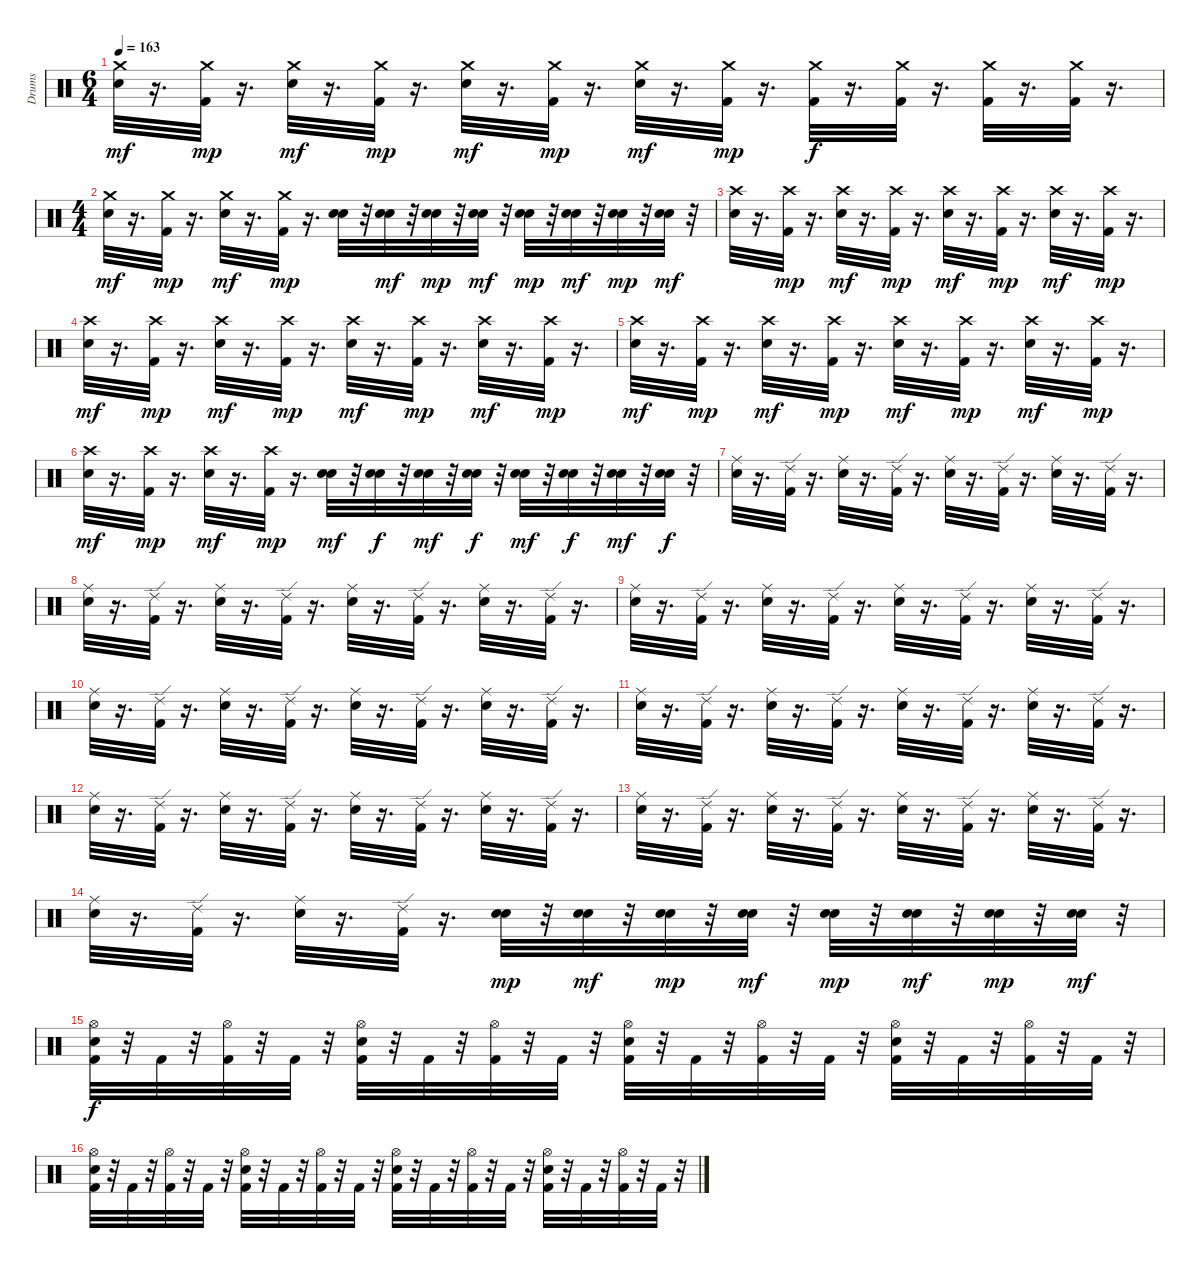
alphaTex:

\track ("Drums" "Drums") {instrument percussion}
\staff {score}
\articulation defaults
\ts (6 4)
\tempo 163
\clef neutral
\ks c
("Snare (hit) 2" "Crash medium (hit)").32{dy mf} r.16{d} ("Kick (hit) 2" "Crash medium (hit)").32{dy mp} r.16{d} ("Snare (hit) 2" "Crash medium (hit)").32{dy mf} r.16{d} ("Kick (hit) 2" "Crash medium (hit)").32{dy mp} r.16{d} ("Snare (hit) 2" "Crash medium (hit)").32{dy mf} r.16{d} ("Kick (hit) 2" "Crash medium (hit)").32{dy mp} r.16{d} ("Snare (hit) 2" "Crash medium (hit)").32{dy mf} r.16{d} ("Kick (hit) 2" "Crash medium (hit)").32{dy mp} r.16{d} ("Kick (hit) 2" "Crash medium (hit)").32{dy f} r.16{d} ("Kick (hit) 2" "Crash medium (hit)").32 r.16{d} ("Kick (hit) 2" "Crash medium (hit)").32 r.16{d} ("Kick (hit) 2" "Crash medium (hit)").32 r.16{d} |
\ts (4 4)
("Snare (hit) 2" "Crash medium (hit)").32{dy mf} r.16{d} ("Kick (hit) 2" "Crash medium (hit)").32{dy mp} r.16{d} ("Snare (hit) 2" "Crash medium (hit)").32{dy mf} r.16{d} ("Kick (hit) 2" "Crash medium (hit)").32{dy mp} r.16{d} ("Snare (hit) 2" "Electric Snare (hit)").32 r.32 ("Snare (hit) 2" "Electric Snare (hit)").32{dy mf} r.32 ("Snare (hit) 2" "Electric Snare (hit)").32{dy mp} r.32 ("Snare (hit) 2" "Electric Snare (hit)").32{dy mf} r.32 ("Snare (hit) 2" "Electric Snare (hit)").32{dy mp} r.32 ("Snare (hit) 2" "Electric Snare (hit)").32{dy mf} r.32 ("Snare (hit) 2" "Electric Snare (hit)").32{dy mp} r.32 ("Snare (hit) 2" "Electric Snare (hit)").32{dy mf} r.32 |
("Snare (hit) 2" "Crash high (hit)").32 r.16{d} ("Kick (hit) 2" "Crash high (hit)").32{dy mp} r.16{d} ("Snare (hit) 2" "Crash high (hit)").32{dy mf} r.16{d} ("Kick (hit) 2" "Crash high (hit)").32{dy mp} r.16{d} ("Snare (hit) 2" "Crash high (hit)").32{dy mf} r.16{d} ("Kick (hit) 2" "Crash high (hit)").32{dy mp} r.16{d} ("Snare (hit) 2" "Crash high (hit)").32{dy mf} r.16{d} ("Kick (hit) 2" "Crash high (hit)").32{dy mp} r.16{d} |
("Snare (hit) 2" "Crash high (hit)").32{dy mf} r.16{d} ("Kick (hit) 2" "Crash high (hit)").32{dy mp} r.16{d} ("Snare (hit) 2" "Crash high (hit)").32{dy mf} r.16{d} ("Kick (hit) 2" "Crash high (hit)").32{dy mp} r.16{d} ("Snare (hit) 2" "Crash high (hit)").32{dy mf} r.16{d} ("Kick (hit) 2" "Crash high (hit)").32{dy mp} r.16{d} ("Snare (hit) 2" "Crash high (hit)").32{dy mf} r.16{d} ("Kick (hit) 2" "Crash high (hit)").32{dy mp} r.16{d} |
("Snare (hit) 2" "Crash high (hit)").32{dy mf} r.16{d} ("Kick (hit) 2" "Crash high (hit)").32{dy mp} r.16{d} ("Snare (hit) 2" "Crash high (hit)").32{dy mf} r.16{d} ("Kick (hit) 2" "Crash high (hit)").32{dy mp} r.16{d} ("Snare (hit) 2" "Crash high (hit)").32{dy mf} r.16{d} ("Kick (hit) 2" "Crash high (hit)").32{dy mp} r.16{d} ("Snare (hit) 2" "Crash high (hit)").32{dy mf} r.16{d} ("Kick (hit) 2" "Crash high (hit)").32{dy mp} r.16{d} |
("Snare (hit) 2" "Crash high (hit)").32{dy mf} r.16{d} ("Kick (hit) 2" "Crash high (hit)").32{dy mp} r.16{d} ("Snare (hit) 2" "Crash high (hit)").32{dy mf} r.16{d} ("Kick (hit) 2" "Crash high (hit)").32{dy mp} r.16{d} ("Snare (hit) 2" "Electric Snare (hit)").32{dy mf} r.32 ("Snare (hit) 2" "Electric Snare (hit)").32{dy f} r.32 ("Snare (hit) 2" "Electric Snare (hit)").32{dy mf} r.32 ("Snare (hit) 2" "Electric Snare (hit)").32{dy f} r.32 ("Snare (hit) 2" "Electric Snare (hit)").32{dy mf} r.32 ("Snare (hit) 2" "Electric Snare (hit)").32{dy f} r.32 ("Snare (hit) 2" "Electric Snare (hit)").32{dy mf} r.32 ("Snare (hit) 2" "Electric Snare (hit)").32{dy f} r.32 |
("Snare (hit) 2" "Ride (middle)").32 r.16{d} ("Kick (hit) 2" "Ride (edge) 2").32 r.16{d} ("Snare (hit) 2" "Ride (middle)").32 r.16{d} ("Kick (hit) 2" "Ride (edge) 2").32 r.16{d} ("Snare (hit) 2" "Ride (middle)").32 r.16{d} ("Kick (hit) 2" "Ride (edge) 2").32 r.16{d} ("Snare (hit) 2" "Ride (middle)").32 r.16{d} ("Kick (hit) 2" "Ride (edge) 2").32 r.16{d} |
("Snare (hit) 2" "Ride (middle)").32 r.16{d} ("Kick (hit) 2" "Ride (edge) 2").32 r.16{d} ("Snare (hit) 2" "Ride (middle)").32 r.16{d} ("Kick (hit) 2" "Ride (edge) 2").32 r.16{d} ("Snare (hit) 2" "Ride (middle)").32 r.16{d} ("Kick (hit) 2" "Ride (edge) 2").32 r.16{d} ("Snare (hit) 2" "Ride (middle)").32 r.16{d} ("Kick (hit) 2" "Ride (edge) 2").32 r.16{d} |
("Snare (hit) 2" "Ride (middle)").32 r.16{d} ("Kick (hit) 2" "Ride (edge) 2").32 r.16{d} ("Snare (hit) 2" "Ride (middle)").32 r.16{d} ("Kick (hit) 2" "Ride (edge) 2").32 r.16{d} ("Snare (hit) 2" "Ride (middle)").32 r.16{d} ("Kick (hit) 2" "Ride (edge) 2").32 r.16{d} ("Snare (hit) 2" "Ride (middle)").32 r.16{d} ("Kick (hit) 2" "Ride (edge) 2").32 r.16{d} |
("Snare (hit) 2" "Ride (middle)").32 r.16{d} ("Kick (hit) 2" "Ride (edge) 2").32 r.16{d} ("Snare (hit) 2" "Ride (middle)").32 r.16{d} ("Kick (hit) 2" "Ride (edge) 2").32 r.16{d} ("Snare (hit) 2" "Ride (middle)").32 r.16{d} ("Kick (hit) 2" "Ride (edge) 2").32 r.16{d} ("Snare (hit) 2" "Ride (middle)").32 r.16{d} ("Kick (hit) 2" "Ride (edge) 2").32 r.16{d} |
("Snare (hit) 2" "Ride (middle)").32 r.16{d} ("Kick (hit) 2" "Ride (edge) 2").32 r.16{d} ("Snare (hit) 2" "Ride (middle)").32 r.16{d} ("Kick (hit) 2" "Ride (edge) 2").32 r.16{d} ("Snare (hit) 2" "Ride (middle)").32 r.16{d} ("Kick (hit) 2" "Ride (edge) 2").32 r.16{d} ("Snare (hit) 2" "Ride (middle)").32 r.16{d} ("Kick (hit) 2" "Ride (edge) 2").32 r.16{d} |
("Snare (hit) 2" "Ride (middle)").32 r.16{d} ("Kick (hit) 2" "Ride (edge) 2").32 r.16{d} ("Snare (hit) 2" "Ride (middle)").32 r.16{d} ("Kick (hit) 2" "Ride (edge) 2").32 r.16{d} ("Snare (hit) 2" "Ride (middle)").32 r.16{d} ("Kick (hit) 2" "Ride (edge) 2").32 r.16{d} ("Snare (hit) 2" "Ride (middle)").32 r.16{d} ("Kick (hit) 2" "Ride (edge) 2").32 r.16{d} |
("Snare (hit) 2" "Ride (middle)").32 r.16{d} ("Kick (hit) 2" "Ride (edge) 2").32 r.16{d} ("Snare (hit) 2" "Ride (middle)").32 r.16{d} ("Kick (hit) 2" "Ride (edge) 2").32 r.16{d} ("Snare (hit) 2" "Ride (middle)").32 r.16{d} ("Kick (hit) 2" "Ride (edge) 2").32 r.16{d} ("Snare (hit) 2" "Ride (middle)").32 r.16{d} ("Kick (hit) 2" "Ride (edge) 2").32 r.16{d} |
("Snare (hit) 2" "Ride (middle)").32 r.16{d} ("Kick (hit) 2" "Ride (edge) 2").32 r.16{d} ("Snare (hit) 2" "Ride (middle)").32 r.16{d} ("Kick (hit) 2" "Ride (edge) 2").32 r.16{d} ("Snare (hit) 2" "Electric Snare (hit)").32{dy mp} r.32 ("Snare (hit) 2" "Electric Snare (hit)").32{dy mf} r.32 ("Snare (hit) 2" "Electric Snare (hit)").32{dy mp} r.32 ("Snare (hit) 2" "Electric Snare (hit)").32{dy mf} r.32 ("Snare (hit) 2" "Electric Snare (hit)").32{dy mp} r.32 ("Snare (hit) 2" "Electric Snare (hit)").32{dy mf} r.32 ("Snare (hit) 2" "Electric Snare (hit)").32{dy mp} r.32 ("Snare (hit) 2" "Electric Snare (hit)").32{dy mf} r.32 |
("Kick (hit) 2" "Snare (hit) 2" "Hi-Hat (open)").32{dy f} r.32 "Kick (hit) 2".32 r.32 ("Kick (hit) 2" "Hi-Hat (open)").32 r.32 "Kick (hit) 2".32 r.32 ("Kick (hit) 2" "Snare (hit) 2" "Hi-Hat (open)").32 r.32 "Kick (hit) 2".32 r.32 ("Kick (hit) 2" "Hi-Hat (open)").32 r.32 "Kick (hit) 2".32 r.32 ("Kick (hit) 2" "Snare (hit) 2" "Hi-Hat (open)").32 r.32 "Kick (hit) 2".32 r.32 ("Kick (hit) 2" "Hi-Hat (open)").32 r.32 "Kick (hit) 2".32 r.32 ("Kick (hit) 2" "Snare (hit) 2" "Hi-Hat (open)").32 r.32 "Kick (hit) 2".32 r.32 ("Kick (hit) 2" "Hi-Hat (open)").32 r.32 "Kick (hit) 2".32 r.32 |
("Kick (hit) 2" "Snare (hit) 2" "Hi-Hat (open)").32 r.32 "Kick (hit) 2".32 r.32 ("Kick (hit) 2" "Hi-Hat (open)").32 r.32 "Kick (hit) 2".32 r.32 ("Kick (hit) 2" "Snare (hit) 2" "Hi-Hat (open)").32 r.32 "Kick (hit) 2".32 r.32 ("Kick (hit) 2" "Hi-Hat (open)").32 r.32 "Kick (hit) 2".32 r.32 ("Kick (hit) 2" "Snare (hit) 2" "Hi-Hat (open)").32 r.32 "Kick (hit) 2".32 r.32 ("Kick (hit) 2" "Hi-Hat (open)").32 r.32 "Kick (hit) 2".32 r.32 ("Kick (hit) 2" "Snare (hit) 2" "Hi-Hat (open)").32 r.32 "Kick (hit) 2".32 r.32 ("Kick (hit) 2" "Hi-Hat (open)").32 r.32 "Kick (hit) 2".32 r.32
